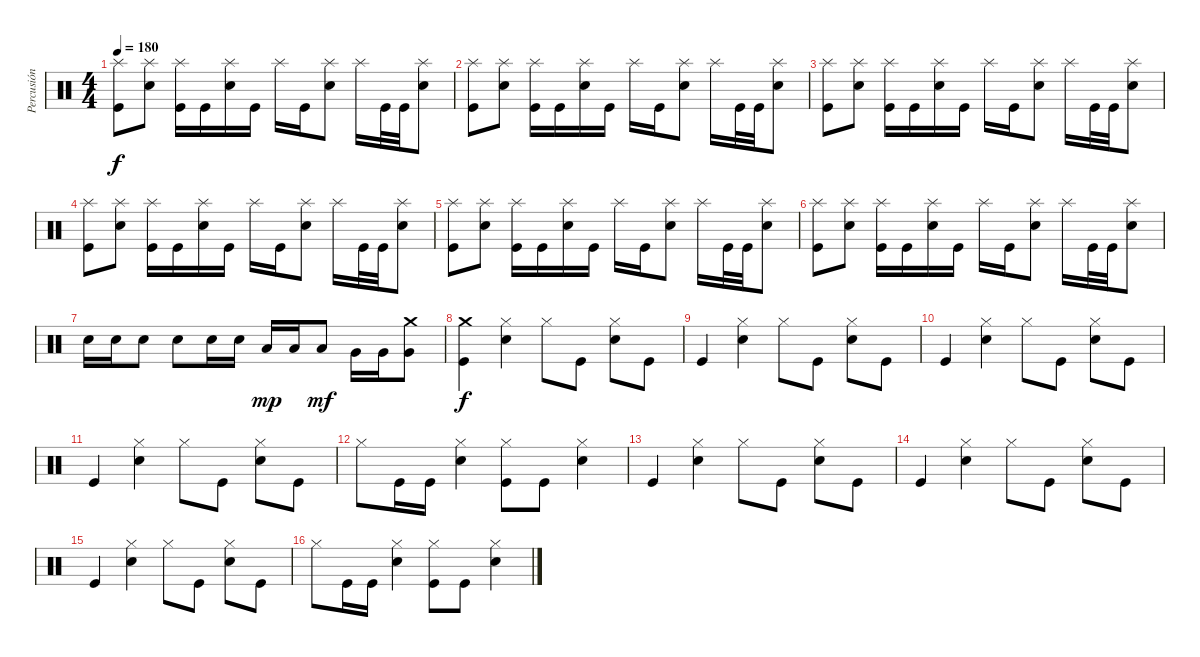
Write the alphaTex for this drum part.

\track ("Percusión" "Percusión") {instrument percussion}
\staff {score}
\articulation defaults
\ts (4 4)
\tempo 180
\clef neutral
\ks c
("Splash (hit)" "Kick (hit)").8{dy f} ("Splash (hit)" "Electric Snare (hit)").8 ("Splash (hit)" "Kick (hit)").16 "Kick (hit)".16 ("Splash (hit)" "Electric Snare (hit)").16 "Kick (hit)".16 "Splash (hit)".16 "Kick (hit)".16 ("Splash (hit)" "Electric Snare (hit)").8 "Splash (hit)".16 "Kick (hit)".32 "Kick (hit)".32 ("Splash (hit)" "Electric Snare (hit)").8 |
("Splash (hit)" "Kick (hit)").8 ("Splash (hit)" "Electric Snare (hit)").8 ("Splash (hit)" "Kick (hit)").16 "Kick (hit)".16 ("Splash (hit)" "Electric Snare (hit)").16 "Kick (hit)".16 "Splash (hit)".16 "Kick (hit)".16 ("Splash (hit)" "Electric Snare (hit)").8 "Splash (hit)".16 "Kick (hit)".32 "Kick (hit)".32 ("Splash (hit)" "Electric Snare (hit)").8 |
("Splash (hit)" "Kick (hit)").8 ("Splash (hit)" "Electric Snare (hit)").8 ("Splash (hit)" "Kick (hit)").16 "Kick (hit)".16 ("Splash (hit)" "Electric Snare (hit)").16 "Kick (hit)".16 "Splash (hit)".16 "Kick (hit)".16 ("Splash (hit)" "Electric Snare (hit)").8 "Splash (hit)".16 "Kick (hit)".32 "Kick (hit)".32 ("Splash (hit)" "Electric Snare (hit)").8 |
("Splash (hit)" "Kick (hit)").8 ("Splash (hit)" "Electric Snare (hit)").8 ("Splash (hit)" "Kick (hit)").16 "Kick (hit)".16 ("Splash (hit)" "Electric Snare (hit)").16 "Kick (hit)".16 "Splash (hit)".16 "Kick (hit)".16 ("Splash (hit)" "Electric Snare (hit)").8 "Splash (hit)".16 "Kick (hit)".32 "Kick (hit)".32 ("Splash (hit)" "Electric Snare (hit)").8 |
("Splash (hit)" "Kick (hit)").8 ("Splash (hit)" "Electric Snare (hit)").8 ("Splash (hit)" "Kick (hit)").16 "Kick (hit)".16 ("Splash (hit)" "Electric Snare (hit)").16 "Kick (hit)".16 "Splash (hit)".16 "Kick (hit)".16 ("Splash (hit)" "Electric Snare (hit)").8 "Splash (hit)".16 "Kick (hit)".32 "Kick (hit)".32 ("Splash (hit)" "Electric Snare (hit)").8 |
("Splash (hit)" "Kick (hit)").8 ("Splash (hit)" "Electric Snare (hit)").8 ("Splash (hit)" "Kick (hit)").16 "Kick (hit)".16 ("Splash (hit)" "Electric Snare (hit)").16 "Kick (hit)".16 "Splash (hit)".16 "Kick (hit)".16 ("Splash (hit)" "Electric Snare (hit)").8 "Splash (hit)".16 "Kick (hit)".32 "Kick (hit)".32 ("Splash (hit)" "Electric Snare (hit)").8 |
"Electric Snare (hit)".16 "Electric Snare (hit)".16 "Electric Snare (hit)".8 "Electric Snare (hit)".8 "Electric Snare (hit)".16 "Electric Snare (hit)".16 "Low Tom (hit)".16{dy mp} "Low Tom (hit)".16 "Low Tom (hit)".8{dy mf} "Very Low Tom (hit)".16 "Very Low Tom (hit)".16 ("Very Low Tom (hit)" "Crash medium (hit)").8 |
("Kick (hit)" "Crash medium (hit)").4{dy f} ("Snare (hit) 2" "Hi-Hat (closed)").4 "Hi-Hat (closed)".8 "Kick (hit)".8 ("Snare (hit) 2" "Hi-Hat (closed)").8 "Kick (hit)".8 |
"Kick (hit)".4 ("Snare (hit) 2" "Hi-Hat (closed)").4 "Hi-Hat (closed)".8 "Kick (hit)".8 ("Snare (hit) 2" "Hi-Hat (closed)").8 "Kick (hit)".8 |
"Kick (hit)".4 ("Snare (hit) 2" "Hi-Hat (closed)").4 "Hi-Hat (closed)".8 "Kick (hit)".8 ("Snare (hit) 2" "Hi-Hat (closed)").8 "Kick (hit)".8 |
"Kick (hit)".4 ("Snare (hit) 2" "Hi-Hat (closed)").4 "Hi-Hat (closed)".8 "Kick (hit)".8 ("Snare (hit) 2" "Hi-Hat (closed)").8 "Kick (hit)".8 |
"Hi-Hat (closed)".8 "Kick (hit)".16 "Kick (hit)".16 ("Snare (hit) 2" "Hi-Hat (closed)").4 ("Kick (hit)" "Hi-Hat (closed)").8 "Kick (hit)".8 ("Snare (hit) 2" "Hi-Hat (closed)").4 |
"Kick (hit)".4 ("Snare (hit) 2" "Hi-Hat (closed)").4 "Hi-Hat (closed)".8 "Kick (hit)".8 ("Snare (hit) 2" "Hi-Hat (closed)").8 "Kick (hit)".8 |
"Kick (hit)".4 ("Snare (hit) 2" "Hi-Hat (closed)").4 "Hi-Hat (closed)".8 "Kick (hit)".8 ("Snare (hit) 2" "Hi-Hat (closed)").8 "Kick (hit)".8 |
"Kick (hit)".4 ("Snare (hit) 2" "Hi-Hat (closed)").4 "Hi-Hat (closed)".8 "Kick (hit)".8 ("Snare (hit) 2" "Hi-Hat (closed)").8 "Kick (hit)".8 |
"Hi-Hat (closed)".8 "Kick (hit)".16 "Kick (hit)".16 ("Snare (hit) 2" "Hi-Hat (closed)").4 ("Kick (hit)" "Hi-Hat (closed)").8 "Kick (hit)".8 ("Snare (hit) 2" "Hi-Hat (closed)").4
